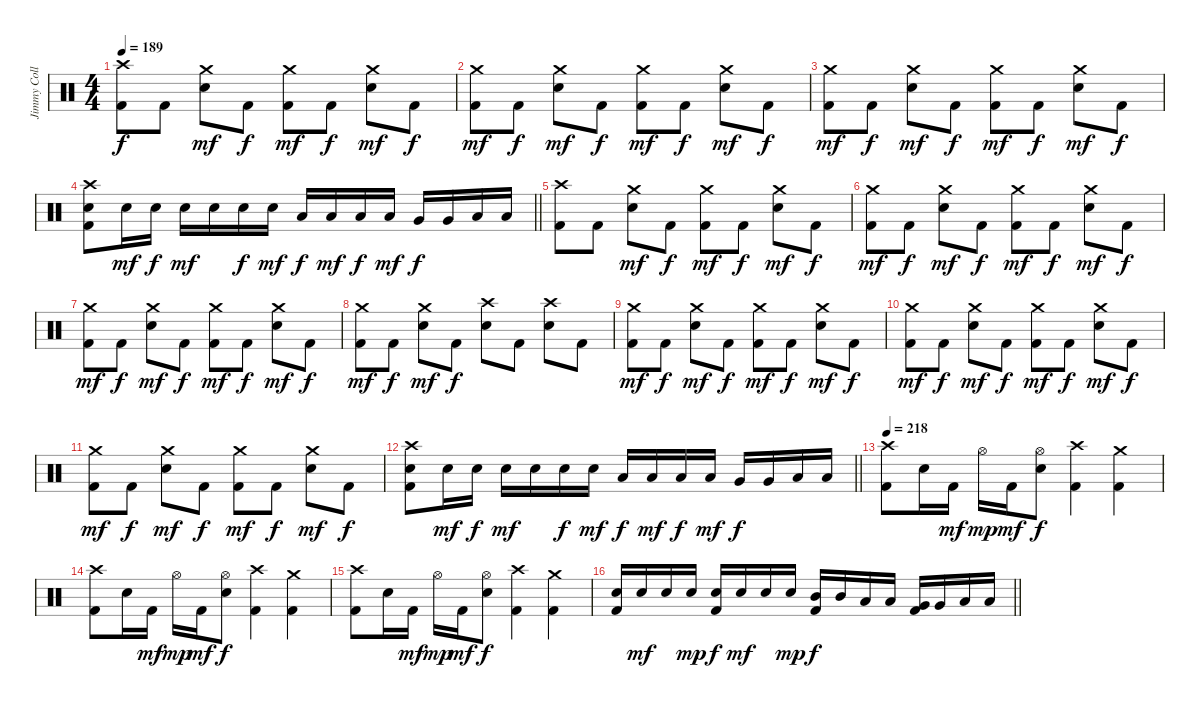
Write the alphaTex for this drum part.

\track ("Jimmy Colletti" "Jimmy Coll") {instrument percussion}
\staff {score}
\articulation defaults
\ts (4 4)
\section ("" "")
\tempo 189
\clef neutral
\ks c
("Crash high (hit)" "Kick (hit) 2").8{dy f} "Kick (hit) 2".8 ("Crash medium (hit)" "Electric Snare (hit)").8{dy mf} "Kick (hit) 2".8{dy f} ("Crash medium (hit)" "Kick (hit) 2").8{dy mf} "Kick (hit) 2".8{dy f} ("Crash medium (hit)" "Electric Snare (hit)").8{dy mf} "Kick (hit) 2".8{dy f} |
("Crash medium (hit)" "Kick (hit) 2").8{dy mf} "Kick (hit) 2".8{dy f} ("Crash medium (hit)" "Electric Snare (hit)").8{dy mf} "Kick (hit) 2".8{dy f} ("Crash medium (hit)" "Kick (hit) 2").8{dy mf} "Kick (hit) 2".8{dy f} ("Crash medium (hit)" "Electric Snare (hit)").8{dy mf} "Kick (hit) 2".8{dy f} |
("Crash medium (hit)" "Kick (hit) 2").8{dy mf} "Kick (hit) 2".8{dy f} ("Crash medium (hit)" "Electric Snare (hit)").8{dy mf} "Kick (hit) 2".8{dy f} ("Crash medium (hit)" "Kick (hit) 2").8{dy mf} "Kick (hit) 2".8{dy f} ("Crash medium (hit)" "Electric Snare (hit)").8{dy mf} "Kick (hit) 2".8{dy f} |
\barLineRight lightlight
("Crash high (hit)" "Electric Snare (hit)" "Kick (hit) 2").8 "Electric Snare (hit)".16{dy mf} "Electric Snare (hit)".16{dy f} "Electric Snare (hit)".16{dy mf} "Electric Snare (hit)".16 "Electric Snare (hit)".16{dy f} "Electric Snare (hit)".16{dy mf} "Low Tom (hit)".16{dy f} "Low Tom (hit)".16{dy mf} "Low Tom (hit)".16{dy f} "Low Tom (hit)".16{dy mf} "Very Low Tom (hit)".16{dy f} "Very Low Tom (hit)".16 "Low Floor Tom (hit)".16 "Low Floor Tom (hit)".16 |
\section ("" "")
("Crash high (hit)" "Kick (hit) 2").8 "Kick (hit) 2".8 ("Crash medium (hit)" "Electric Snare (hit)").8{dy mf} "Kick (hit) 2".8{dy f} ("Crash medium (hit)" "Kick (hit) 2").8{dy mf} "Kick (hit) 2".8{dy f} ("Crash medium (hit)" "Electric Snare (hit)").8{dy mf} "Kick (hit) 2".8{dy f} |
("Crash medium (hit)" "Kick (hit) 2").8{dy mf} "Kick (hit) 2".8{dy f} ("Crash medium (hit)" "Electric Snare (hit)").8{dy mf} "Kick (hit) 2".8{dy f} ("Crash medium (hit)" "Kick (hit) 2").8{dy mf} "Kick (hit) 2".8{dy f} ("Crash medium (hit)" "Electric Snare (hit)").8{dy mf} "Kick (hit) 2".8{dy f} |
("Crash medium (hit)" "Kick (hit) 2").8{dy mf} "Kick (hit) 2".8{dy f} ("Crash medium (hit)" "Electric Snare (hit)").8{dy mf} "Kick (hit) 2".8{dy f} ("Crash medium (hit)" "Kick (hit) 2").8{dy mf} "Kick (hit) 2".8{dy f} ("Crash medium (hit)" "Electric Snare (hit)").8{dy mf} "Kick (hit) 2".8{dy f} |
("Crash medium (hit)" "Kick (hit) 2").8{dy mf} "Kick (hit) 2".8{dy f} ("Crash medium (hit)" "Electric Snare (hit)").8{dy mf} "Kick (hit) 2".8{dy f} ("Crash high (hit)" "Electric Snare (hit)").8 "Kick (hit) 2".8 ("Crash high (hit)" "Electric Snare (hit)").8 "Kick (hit) 2".8 |
("Crash medium (hit)" "Kick (hit) 2").8{dy mf} "Kick (hit) 2".8{dy f} ("Crash medium (hit)" "Electric Snare (hit)").8{dy mf} "Kick (hit) 2".8{dy f} ("Crash medium (hit)" "Kick (hit) 2").8{dy mf} "Kick (hit) 2".8{dy f} ("Crash medium (hit)" "Electric Snare (hit)").8{dy mf} "Kick (hit) 2".8{dy f} |
("Crash medium (hit)" "Kick (hit) 2").8{dy mf} "Kick (hit) 2".8{dy f} ("Crash medium (hit)" "Electric Snare (hit)").8{dy mf} "Kick (hit) 2".8{dy f} ("Crash medium (hit)" "Kick (hit) 2").8{dy mf} "Kick (hit) 2".8{dy f} ("Crash medium (hit)" "Electric Snare (hit)").8{dy mf} "Kick (hit) 2".8{dy f} |
("Crash medium (hit)" "Kick (hit) 2").8{dy mf} "Kick (hit) 2".8{dy f} ("Crash medium (hit)" "Electric Snare (hit)").8{dy mf} "Kick (hit) 2".8{dy f} ("Crash medium (hit)" "Kick (hit) 2").8{dy mf} "Kick (hit) 2".8{dy f} ("Crash medium (hit)" "Electric Snare (hit)").8{dy mf} "Kick (hit) 2".8{dy f} |
\barLineRight lightlight
("Crash high (hit)" "Electric Snare (hit)" "Kick (hit) 2").8 "Electric Snare (hit)".16{dy mf} "Electric Snare (hit)".16{dy f} "Electric Snare (hit)".16{dy mf} "Electric Snare (hit)".16 "Electric Snare (hit)".16{dy f} "Electric Snare (hit)".16{dy mf} "Low Tom (hit)".16{dy f} "Low Tom (hit)".16{dy mf} "Low Tom (hit)".16{dy f} "Low Tom (hit)".16{dy mf} "Very Low Tom (hit)".16{dy f} "Very Low Tom (hit)".16 "Low Floor Tom (hit)".16 "Low Floor Tom (hit)".16 |
\section ("" "")
\tempo 218
("Crash high (hit)" "Kick (hit) 2").8 "Electric Snare (hit)".16 "Kick (hit) 2".16{dy mf} "Hi-Hat (open)".16{dy mp} "Kick (hit) 2".16{dy mf} ("Hi-Hat (open)" "Electric Snare (hit)").8{dy f} ("Crash high (hit)" "Kick (hit) 2").4 ("Crash medium (hit)" "Kick (hit) 2").4 |
("Crash high (hit)" "Kick (hit) 2").8 "Electric Snare (hit)".16 "Kick (hit) 2".16{dy mf} "Hi-Hat (open)".16{dy mp} "Kick (hit) 2".16{dy mf} ("Hi-Hat (open)" "Electric Snare (hit)").8{dy f} ("Crash high (hit)" "Kick (hit) 2").4 ("Crash medium (hit)" "Kick (hit) 2").4 |
("Crash high (hit)" "Kick (hit) 2").8 "Electric Snare (hit)".16 "Kick (hit) 2".16{dy mf} "Hi-Hat (open)".16{dy mp} "Kick (hit) 2".16{dy mf} ("Hi-Hat (open)" "Electric Snare (hit)").8{dy f} ("Crash high (hit)" "Kick (hit) 2").4 ("Crash medium (hit)" "Kick (hit) 2").4 |
\barLineRight lightlight
("Electric Snare (hit)" "Kick (hit) 2").16 "Electric Snare (hit)".16{dy mf} "Electric Snare (hit)".16 "Electric Snare (hit)".16{dy mp} ("Electric Snare (hit)" "Kick (hit) 2").16{dy f} "Electric Snare (hit)".16{dy mf} "Electric Snare (hit)".16 "Electric Snare (hit)".16{dy mp} ("Mid Tom (hit)" "Kick (hit) 2").16{dy f} "Mid Tom (hit)".16 "Low Tom (hit)".16 "Low Tom (hit)".16 ("Very Low Tom (hit)" "Kick (hit) 2").16 "Very Low Tom (hit)".16 "Low Floor Tom (hit)".16 "Low Floor Tom (hit)".16
